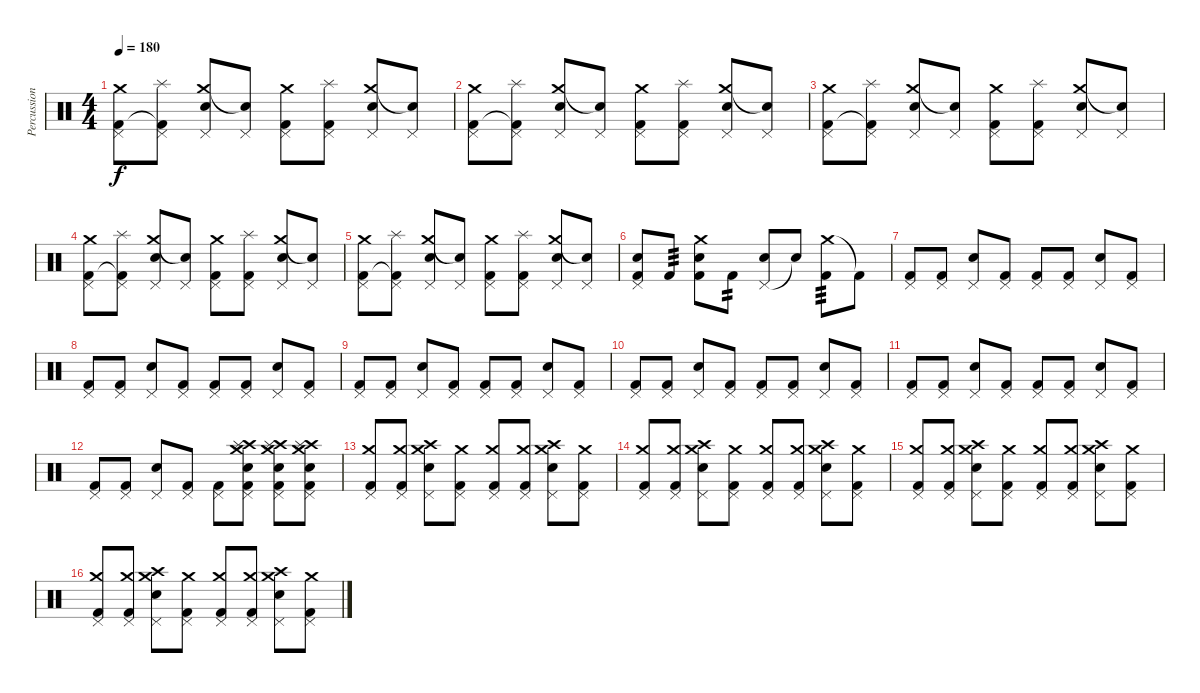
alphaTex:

\track ("Percussion" "Percussion") {instrument percussion}
\staff
\articulation defaults
\ts (4 4)
\tempo 180
\clef neutral
\ks c
("Pedal Hi-Hat (hit)" "Crash medium (hit)" "Kick (hit) 2").8{dy f} ("Pedal Hi-Hat (hit)" "Splash (hit)" "Kick (hit) 2"{t}).8 ("Pedal Hi-Hat (hit)" "Crash medium (hit)" "Snare (hit) 2").8 ("Pedal Hi-Hat (hit)" "Snare (hit) 2"{t}).8 ("Pedal Hi-Hat (hit)" "Crash medium (hit)" "Kick (hit) 2").8 ("Pedal Hi-Hat (hit)" "Splash (hit)" "Kick (hit) 2").8 ("Pedal Hi-Hat (hit)" "Crash medium (hit)" "Snare (hit) 2").8 ("Pedal Hi-Hat (hit)" "Snare (hit) 2"{t}).8 |
("Pedal Hi-Hat (hit)" "Crash medium (hit)" "Kick (hit) 2").8 ("Pedal Hi-Hat (hit)" "Splash (hit)" "Kick (hit) 2"{t}).8 ("Pedal Hi-Hat (hit)" "Crash medium (hit)" "Snare (hit) 2").8 ("Pedal Hi-Hat (hit)" "Snare (hit) 2"{t}).8 ("Pedal Hi-Hat (hit)" "Crash medium (hit)" "Kick (hit) 2").8 ("Pedal Hi-Hat (hit)" "Splash (hit)" "Kick (hit) 2").8 ("Pedal Hi-Hat (hit)" "Crash medium (hit)" "Snare (hit) 2").8 ("Pedal Hi-Hat (hit)" "Snare (hit) 2"{t}).8 |
("Pedal Hi-Hat (hit)" "Crash medium (hit)" "Kick (hit) 2").8 ("Pedal Hi-Hat (hit)" "Splash (hit)" "Kick (hit) 2"{t}).8 ("Pedal Hi-Hat (hit)" "Crash medium (hit)" "Snare (hit) 2").8 ("Pedal Hi-Hat (hit)" "Snare (hit) 2"{t}).8 ("Pedal Hi-Hat (hit)" "Crash medium (hit)" "Kick (hit) 2").8 ("Pedal Hi-Hat (hit)" "Splash (hit)" "Kick (hit) 2").8 ("Pedal Hi-Hat (hit)" "Crash medium (hit)" "Snare (hit) 2").8 ("Pedal Hi-Hat (hit)" "Snare (hit) 2"{t}).8 |
("Pedal Hi-Hat (hit)" "Crash medium (hit)" "Kick (hit) 2").8 ("Pedal Hi-Hat (hit)" "Splash (hit)" "Kick (hit) 2"{t}).8 ("Pedal Hi-Hat (hit)" "Crash medium (hit)" "Snare (hit) 2").8 ("Pedal Hi-Hat (hit)" "Snare (hit) 2"{t}).8 ("Pedal Hi-Hat (hit)" "Crash medium (hit)" "Kick (hit) 2").8 ("Pedal Hi-Hat (hit)" "Splash (hit)" "Kick (hit) 2").8 ("Pedal Hi-Hat (hit)" "Crash medium (hit)" "Snare (hit) 2").8 ("Pedal Hi-Hat (hit)" "Snare (hit) 2"{t}).8 |
("Pedal Hi-Hat (hit)" "Crash medium (hit)" "Kick (hit) 2").8 ("Pedal Hi-Hat (hit)" "Splash (hit)" "Kick (hit) 2"{t}).8 ("Pedal Hi-Hat (hit)" "Crash medium (hit)" "Snare (hit) 2").8 ("Pedal Hi-Hat (hit)" "Snare (hit) 2"{t}).8 ("Pedal Hi-Hat (hit)" "Crash medium (hit)" "Kick (hit) 2").8 ("Pedal Hi-Hat (hit)" "Splash (hit)" "Kick (hit) 2").8 ("Pedal Hi-Hat (hit)" "Crash medium (hit)" "Snare (hit) 2").8 ("Pedal Hi-Hat (hit)" "Snare (hit) 2"{t}).8 |
("Pedal Hi-Hat (hit)" "Kick (hit) 2" "Snare (hit) 2").8 "Kick (hit) 2".8{tp 3} ("Crash medium (hit)" "Snare (hit) 2" "Kick (hit) 2").8 "Kick (hit) 2".8{tp 2} ("Pedal Hi-Hat (hit)" "Snare (hit) 2").8 "Snare (hit) 2"{t}.8 ("Crash medium (hit)" "Kick (hit) 2").8{tp 3} "Kick (hit) 2"{t}.8 |
("Pedal Hi-Hat (hit)" "Kick (hit) 2").8 ("Pedal Hi-Hat (hit)" "Kick (hit) 2").8 ("Pedal Hi-Hat (hit)" "Snare (hit) 2").8 ("Pedal Hi-Hat (hit)" "Kick (hit) 2").8 ("Pedal Hi-Hat (hit)" "Kick (hit) 2").8 ("Pedal Hi-Hat (hit)" "Kick (hit) 2").8 ("Pedal Hi-Hat (hit)" "Snare (hit) 2").8 ("Pedal Hi-Hat (hit)" "Kick (hit) 2").8 |
("Pedal Hi-Hat (hit)" "Kick (hit) 2").8 ("Pedal Hi-Hat (hit)" "Kick (hit) 2").8 ("Pedal Hi-Hat (hit)" "Snare (hit) 2").8 ("Pedal Hi-Hat (hit)" "Kick (hit) 2").8 ("Pedal Hi-Hat (hit)" "Kick (hit) 2").8 ("Pedal Hi-Hat (hit)" "Kick (hit) 2").8 ("Pedal Hi-Hat (hit)" "Snare (hit) 2").8 ("Pedal Hi-Hat (hit)" "Kick (hit) 2").8 |
("Pedal Hi-Hat (hit)" "Kick (hit) 2").8 ("Pedal Hi-Hat (hit)" "Kick (hit) 2").8 ("Pedal Hi-Hat (hit)" "Snare (hit) 2").8 ("Pedal Hi-Hat (hit)" "Kick (hit) 2").8 ("Pedal Hi-Hat (hit)" "Kick (hit) 2").8 ("Pedal Hi-Hat (hit)" "Kick (hit) 2").8 ("Pedal Hi-Hat (hit)" "Snare (hit) 2").8 ("Pedal Hi-Hat (hit)" "Kick (hit) 2").8 |
("Pedal Hi-Hat (hit)" "Kick (hit) 2").8 ("Pedal Hi-Hat (hit)" "Kick (hit) 2").8 ("Pedal Hi-Hat (hit)" "Snare (hit) 2").8 ("Pedal Hi-Hat (hit)" "Kick (hit) 2").8 ("Pedal Hi-Hat (hit)" "Kick (hit) 2").8 ("Pedal Hi-Hat (hit)" "Kick (hit) 2").8 ("Pedal Hi-Hat (hit)" "Snare (hit) 2").8 ("Pedal Hi-Hat (hit)" "Kick (hit) 2").8 |
("Pedal Hi-Hat (hit)" "Kick (hit) 2").8 ("Pedal Hi-Hat (hit)" "Kick (hit) 2").8 ("Pedal Hi-Hat (hit)" "Snare (hit) 2").8 ("Pedal Hi-Hat (hit)" "Kick (hit) 2").8 ("Pedal Hi-Hat (hit)" "Kick (hit) 2").8 ("Pedal Hi-Hat (hit)" "Kick (hit) 2").8 ("Pedal Hi-Hat (hit)" "Snare (hit) 2").8 ("Pedal Hi-Hat (hit)" "Kick (hit) 2").8 |
("Pedal Hi-Hat (hit)" "Kick (hit) 2").8 ("Pedal Hi-Hat (hit)" "Kick (hit) 2").8 ("Pedal Hi-Hat (hit)" "Snare (hit) 2").8 ("Pedal Hi-Hat (hit)" "Kick (hit) 2").8 ("Pedal Hi-Hat (hit)" "Kick (hit) 2").8 ("Pedal Hi-Hat (hit)" "Crash high (hit)" "Crash medium (hit)" "Splash (hit)" "Snare (hit) 2" "Kick (hit) 2").8 ("Pedal Hi-Hat (hit)" "Crash high (hit)" "Crash medium (hit)" "Splash (hit)" "Snare (hit) 2" "Kick (hit) 2").8 ("Pedal Hi-Hat (hit)" "Crash high (hit)" "Crash medium (hit)" "Splash (hit)" "Snare (hit) 2" "Kick (hit) 2").8 |
("Pedal Hi-Hat (hit)" "Crash medium (hit)" "Kick (hit) 2").8 ("Pedal Hi-Hat (hit)" "Crash medium (hit)" "Kick (hit) 2").8 ("Pedal Hi-Hat (hit)" "Crash high (hit)" "Crash medium (hit)" "Snare (hit) 2").8 ("Pedal Hi-Hat (hit)" "Crash medium (hit)" "Kick (hit) 2").8 ("Pedal Hi-Hat (hit)" "Crash medium (hit)" "Kick (hit) 2").8 ("Pedal Hi-Hat (hit)" "Crash medium (hit)" "Kick (hit) 2").8 ("Pedal Hi-Hat (hit)" "Crash high (hit)" "Crash medium (hit)" "Snare (hit) 2").8 ("Pedal Hi-Hat (hit)" "Crash medium (hit)" "Kick (hit) 2").8 |
("Pedal Hi-Hat (hit)" "Crash medium (hit)" "Kick (hit) 2").8 ("Pedal Hi-Hat (hit)" "Crash medium (hit)" "Kick (hit) 2").8 ("Pedal Hi-Hat (hit)" "Crash high (hit)" "Crash medium (hit)" "Snare (hit) 2").8 ("Pedal Hi-Hat (hit)" "Crash medium (hit)" "Kick (hit) 2").8 ("Pedal Hi-Hat (hit)" "Crash medium (hit)" "Kick (hit) 2").8 ("Pedal Hi-Hat (hit)" "Crash medium (hit)" "Kick (hit) 2").8 ("Pedal Hi-Hat (hit)" "Crash high (hit)" "Crash medium (hit)" "Snare (hit) 2").8 ("Pedal Hi-Hat (hit)" "Crash medium (hit)" "Kick (hit) 2").8 |
("Pedal Hi-Hat (hit)" "Crash medium (hit)" "Kick (hit) 2").8 ("Pedal Hi-Hat (hit)" "Crash medium (hit)" "Kick (hit) 2").8 ("Pedal Hi-Hat (hit)" "Crash high (hit)" "Crash medium (hit)" "Snare (hit) 2").8 ("Pedal Hi-Hat (hit)" "Crash medium (hit)" "Kick (hit) 2").8 ("Pedal Hi-Hat (hit)" "Crash medium (hit)" "Kick (hit) 2").8 ("Pedal Hi-Hat (hit)" "Crash medium (hit)" "Kick (hit) 2").8 ("Pedal Hi-Hat (hit)" "Crash high (hit)" "Crash medium (hit)" "Snare (hit) 2").8 ("Pedal Hi-Hat (hit)" "Crash medium (hit)" "Kick (hit) 2").8 |
("Pedal Hi-Hat (hit)" "Crash medium (hit)" "Kick (hit) 2").8 ("Pedal Hi-Hat (hit)" "Crash medium (hit)" "Kick (hit) 2").8 ("Pedal Hi-Hat (hit)" "Crash high (hit)" "Crash medium (hit)" "Snare (hit) 2").8 ("Pedal Hi-Hat (hit)" "Crash medium (hit)" "Kick (hit) 2").8 ("Pedal Hi-Hat (hit)" "Crash medium (hit)" "Kick (hit) 2").8 ("Pedal Hi-Hat (hit)" "Crash medium (hit)" "Kick (hit) 2").8 ("Pedal Hi-Hat (hit)" "Crash high (hit)" "Crash medium (hit)" "Snare (hit) 2").8 ("Pedal Hi-Hat (hit)" "Crash medium (hit)" "Kick (hit) 2").8
